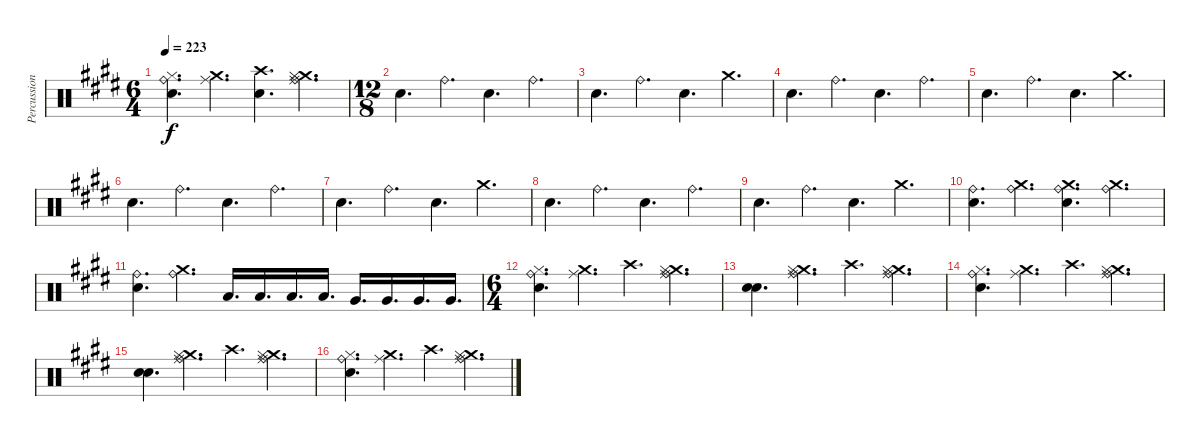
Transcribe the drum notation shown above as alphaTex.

\track ("Percussion" "Percussion") {instrument percussion}
\staff {score}
\articulation defaults
\ts (6 4)
\tempo 223
\clef neutral
\ks e
("Hi-Hat (closed)" "Snare (hit) 2" "Ride (bell)").4{d dy f} ("Ride (middle)" "Crash medium (hit)").4{d} ("Snare (hit) 2" "Crash high (hit)").4{d} ("Ride (middle)" "Crash medium (hit)" "Hi-Hat (closed)" "Ride (bell)").4{d} |
\ts (12 8)
"Snare (hit) 2".4{d} "Ride (bell)".4{d} "Snare (hit) 2".4{d} "Ride (bell)".4{d} |
"Snare (hit) 2".4{d} "Ride (bell)".4{d} "Snare (hit) 2".4{d} "Crash medium (hit)".4{d} |
"Snare (hit) 2".4{d} "Ride (bell)".4{d} "Snare (hit) 2".4{d} "Ride (bell)".4{d} |
"Snare (hit) 2".4{d} "Ride (bell)".4{d} "Snare (hit) 2".4{d} "Crash medium (hit)".4{d} |
"Snare (hit) 2".4{d} "Ride (bell)".4{d} "Snare (hit) 2".4{d} "Ride (bell)".4{d} |
"Snare (hit) 2".4{d} "Ride (bell)".4{d} "Snare (hit) 2".4{d} "Crash medium (hit)".4{d} |
"Snare (hit) 2".4{d} "Ride (bell)".4{d} "Snare (hit) 2".4{d} "Ride (bell)".4{d} |
"Snare (hit) 2".4{d} "Ride (bell)".4{d} "Snare (hit) 2".4{d} "Crash medium (hit)".4{d} |
("Ride (bell)" "Snare (hit) 2").4{d} ("Crash medium (hit)" "Ride (bell)").4{d} ("Ride (bell)" "Crash medium (hit)" "Snare (hit) 2").4{d} ("Crash medium (hit)" "Ride (bell)").4{d} |
("Ride (bell)" "Snare (hit) 2").4{d} ("Crash medium (hit)" "Ride (bell)").4{d} "Low Tom (hit)".16{d} "Low Tom (hit)".16{d} "Low Tom (hit)".16{d} "Low Tom (hit)".16{d} "Very Low Tom (hit)".16{d} "Very Low Tom (hit)".16{d} "Very Low Tom (hit)".16{d} "Very Low Tom (hit)".16{d} |
\ts (6 4)
("Hi-Hat (closed)" "Snare (hit) 2" "Ride (bell)").4{d} ("Ride (middle)" "Crash medium (hit)").4{d} "Crash high (hit)".4{d} ("Ride (middle)" "Crash medium (hit)" "Hi-Hat (closed)" "Ride (bell)").4{d} |
("Snare (hit) 2" "Snare (hit) 2").4{d} ("Ride (middle)" "Crash medium (hit)" "Hi-Hat (closed)" "Ride (bell)").4{d} "Crash high (hit)".4{d} ("Ride (middle)" "Crash medium (hit)" "Hi-Hat (closed)" "Ride (bell)").4{d} |
("Hi-Hat (closed)" "Snare (hit) 2" "Ride (bell)").4{d} ("Ride (middle)" "Crash medium (hit)").4{d} "Crash high (hit)".4{d} ("Ride (middle)" "Crash medium (hit)" "Hi-Hat (closed)" "Ride (bell)").4{d} |
("Snare (hit) 2" "Snare (hit) 2").4{d} ("Ride (middle)" "Crash medium (hit)" "Hi-Hat (closed)" "Ride (bell)").4{d} "Crash high (hit)".4{d} ("Ride (middle)" "Crash medium (hit)" "Hi-Hat (closed)" "Ride (bell)").4{d} |
("Hi-Hat (closed)" "Snare (hit) 2" "Ride (bell)").4{d} ("Ride (middle)" "Crash medium (hit)").4{d} "Crash high (hit)".4{d} ("Ride (middle)" "Crash medium (hit)" "Hi-Hat (closed)" "Ride (bell)").4{d}
